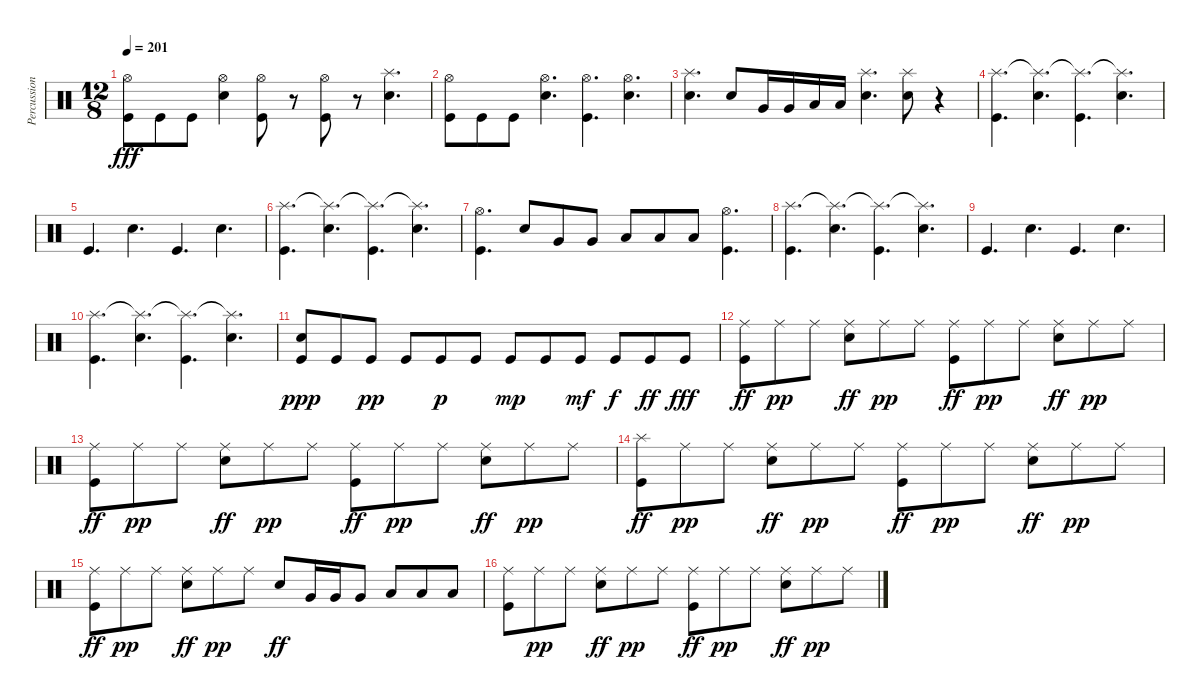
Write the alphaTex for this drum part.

\track ("Percussion" "Percussion") {instrument percussion}
\staff {score}
\articulation defaults
\ts (12 8)
\tempo 201
\clef neutral
\ks c
("Hi-Hat (open)" "Kick (hit)").8{dy fff} "Kick (hit)".8 "Kick (hit)".8 ("Hi-Hat (open)" "Snare (hit) 2").4 ("Hi-Hat (open)" "Kick (hit)").8 r.8 ("Hi-Hat (open)" "Kick (hit)").8 r.8 ("Splash (hit)" "Snare (hit) 2").4{d} |
("Hi-Hat (open)" "Kick (hit)").8 "Kick (hit)".8 "Kick (hit)".8 ("Hi-Hat (open)" "Snare (hit) 2").4{d} ("Hi-Hat (open)" "Kick (hit)").4{d} ("Hi-Hat (open)" "Snare (hit) 2").4{d} |
("Splash (hit)" "Snare (hit) 2").4{d} "Snare (hit) 2".8 "Very Low Tom (hit)".16 "Very Low Tom (hit)".16 "Low Floor Tom (hit)".16 "Low Floor Tom (hit)".16 ("Splash (hit)" "Snare (hit) 2").4{d} ("Splash (hit)" "Snare (hit) 2").8 r.4 |
("Splash (hit)" "Kick (hit)").4{d} ("Splash (hit)"{t} "Snare (hit) 2").4{d} ("Splash (hit)"{t} "Kick (hit)").4{d} ("Splash (hit)"{t} "Snare (hit) 2").4{d} |
"Kick (hit)".4{d} "Snare (hit) 2".4{d} "Kick (hit)".4{d} "Snare (hit) 2".4{d} |
("Splash (hit)" "Kick (hit)").4{d} ("Splash (hit)"{t} "Snare (hit) 2").4{d} ("Splash (hit)"{t} "Kick (hit)").4{d} ("Splash (hit)"{t} "Snare (hit) 2").4{d} |
("Hi-Hat (open)" "Kick (hit)").4{d} "Snare (hit) 2".8 "Very Low Tom (hit)".8 "Very Low Tom (hit)".8 "Low Floor Tom (hit)".8 "Low Floor Tom (hit)".8 "Low Floor Tom (hit)".8 ("Hi-Hat (open)" "Kick (hit)").4{d} |
("Splash (hit)" "Kick (hit)").4{d} ("Splash (hit)"{t} "Snare (hit) 2").4{d} ("Splash (hit)"{t} "Kick (hit)").4{d} ("Splash (hit)"{t} "Snare (hit) 2").4{d} |
"Kick (hit)".4{d} "Snare (hit) 2".4{d} "Kick (hit)".4{d} "Snare (hit) 2".4{d} |
("Splash (hit)" "Kick (hit)").4{d} ("Splash (hit)"{t} "Snare (hit) 2").4{d} ("Splash (hit)"{t} "Kick (hit)").4{d} ("Splash (hit)"{t} "Snare (hit) 2").4{d} |
("Snare (hit) 2" "Kick (hit)").8{dy ppp} "Kick (hit)".8 "Kick (hit)".8{dy pp} "Kick (hit)".8 "Kick (hit)".8{dy p} "Kick (hit)".8 "Kick (hit)".8{dy mp} "Kick (hit)".8 "Kick (hit)".8{dy mf} "Kick (hit)".8{dy f} "Kick (hit)".8{dy ff} "Kick (hit)".8{dy fff} |
("Ride (middle)" "Kick (hit)").8{dy ff} "Ride (middle)".8{dy pp} "Ride (middle)".8 ("Ride (middle)" "Snare (hit) 2").8{dy ff} "Ride (middle)".8{dy pp} "Ride (middle)".8 ("Ride (middle)" "Kick (hit)").8{dy ff} "Ride (middle)".8{dy pp} "Ride (middle)".8 ("Ride (middle)" "Snare (hit) 2").8{dy ff} "Ride (middle)".8{dy pp} "Ride (middle)".8 |
("Ride (middle)" "Kick (hit)").8{dy ff} "Ride (middle)".8{dy pp} "Ride (middle)".8 ("Ride (middle)" "Snare (hit) 2").8{dy ff} "Ride (middle)".8{dy pp} "Ride (middle)".8 ("Ride (middle)" "Kick (hit)").8{dy ff} "Ride (middle)".8{dy pp} "Ride (middle)".8 ("Ride (middle)" "Snare (hit) 2").8{dy ff} "Ride (middle)".8{dy pp} "Ride (middle)".8 |
("Splash (hit)" "Kick (hit)").8{dy ff} "Ride (middle)".8{dy pp} "Ride (middle)".8 ("Ride (middle)" "Snare (hit) 2").8{dy ff} "Ride (middle)".8{dy pp} "Ride (middle)".8 ("Ride (middle)" "Kick (hit)").8{dy ff} "Ride (middle)".8{dy pp} "Ride (middle)".8 ("Ride (middle)" "Snare (hit) 2").8{dy ff} "Ride (middle)".8{dy pp} "Ride (middle)".8 |
("Ride (middle)" "Kick (hit)").8{dy ff} "Ride (middle)".8{dy pp} "Ride (middle)".8 ("Ride (middle)" "Snare (hit) 2").8{dy ff} "Ride (middle)".8{dy pp} "Ride (middle)".8 "Snare (hit) 2".8{dy ff} "Very Low Tom (hit)".16 "Very Low Tom (hit)".16 "Very Low Tom (hit)".8 "Low Floor Tom (hit)".8 "Low Floor Tom (hit)".8 "Low Floor Tom (hit)".8 |
("Ride (middle)" "Kick (hit)").8 "Ride (middle)".8{dy pp} "Ride (middle)".8 ("Ride (middle)" "Snare (hit) 2").8{dy ff} "Ride (middle)".8{dy pp} "Ride (middle)".8 ("Ride (middle)" "Kick (hit)").8{dy ff} "Ride (middle)".8{dy pp} "Ride (middle)".8 ("Ride (middle)" "Snare (hit) 2").8{dy ff} "Ride (middle)".8{dy pp} "Ride (middle)".8
